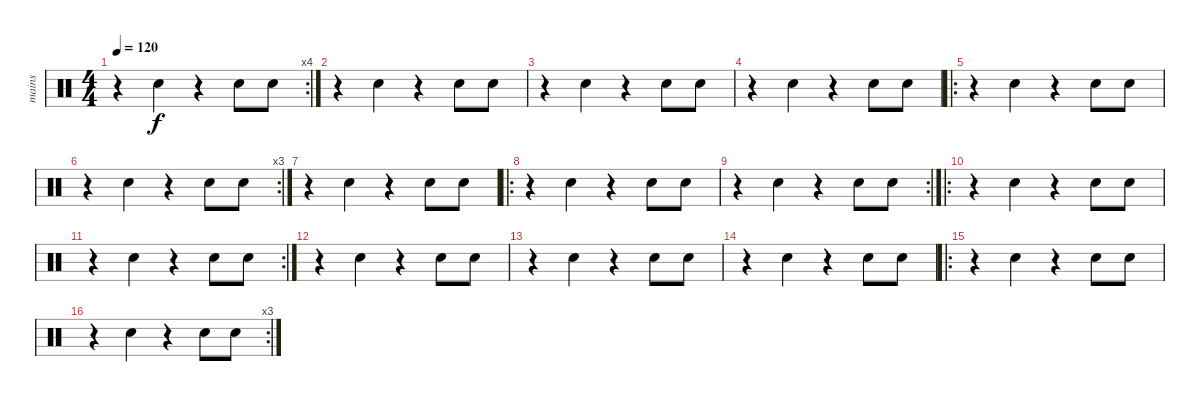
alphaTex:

\track ("mains" "mains") {instrument percussion}
\staff {score}
\articulation defaults
\rc 4
\ts (4 4)
\tempo 120
\clef neutral
\ks c
r.4{dy f} "Hand Clap (hit)".4 r.4 "Hand Clap (hit)".8 "Hand Clap (hit)".8 |
r.4 "Hand Clap (hit)".4 r.4 "Hand Clap (hit)".8 "Hand Clap (hit)".8 |
r.4 "Hand Clap (hit)".4 r.4 "Hand Clap (hit)".8 "Hand Clap (hit)".8 |
r.4 "Hand Clap (hit)".4 r.4 "Hand Clap (hit)".8 "Hand Clap (hit)".8 |
\ro
r.4 "Hand Clap (hit)".4 r.4 "Hand Clap (hit)".8 "Hand Clap (hit)".8 |
\rc 3
r.4 "Hand Clap (hit)".4 r.4 "Hand Clap (hit)".8 "Hand Clap (hit)".8 |
r.4 "Hand Clap (hit)".4 r.4 "Hand Clap (hit)".8 "Hand Clap (hit)".8 |
\ro
r.4 "Hand Clap (hit)".4 r.4 "Hand Clap (hit)".8 "Hand Clap (hit)".8 |
\rc 2
r.4 "Hand Clap (hit)".4 r.4 "Hand Clap (hit)".8 "Hand Clap (hit)".8 |
\ro
r.4 "Hand Clap (hit)".4 r.4 "Hand Clap (hit)".8 "Hand Clap (hit)".8 |
\rc 2
r.4 "Hand Clap (hit)".4 r.4 "Hand Clap (hit)".8 "Hand Clap (hit)".8 |
r.4 "Hand Clap (hit)".4 r.4 "Hand Clap (hit)".8 "Hand Clap (hit)".8 |
r.4 "Hand Clap (hit)".4 r.4 "Hand Clap (hit)".8 "Hand Clap (hit)".8 |
r.4 "Hand Clap (hit)".4 r.4 "Hand Clap (hit)".8 "Hand Clap (hit)".8 |
\ro
r.4 "Hand Clap (hit)".4 r.4 "Hand Clap (hit)".8 "Hand Clap (hit)".8 |
\rc 3
r.4 "Hand Clap (hit)".4 r.4 "Hand Clap (hit)".8 "Hand Clap (hit)".8
